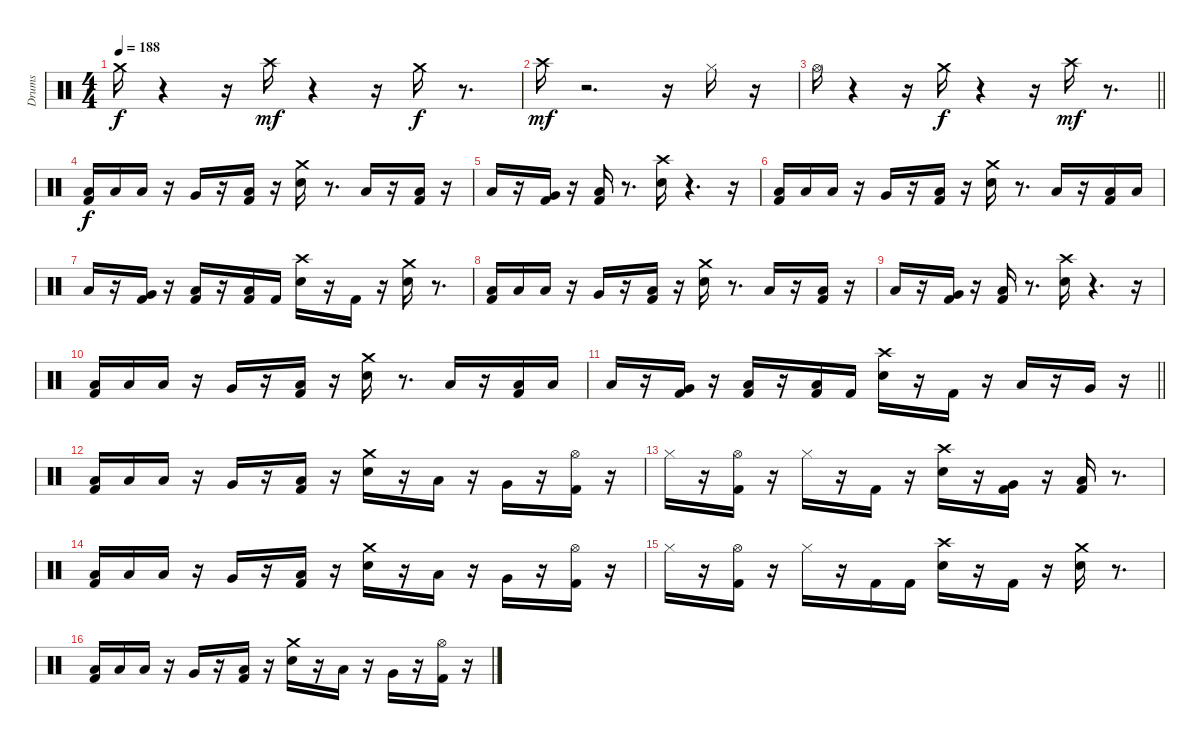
\track ("Drums" "Drums") {instrument percussion}
\staff {score}
\articulation defaults
\ts (4 4)
\tempo 188
\clef neutral
\ks c "Crash medium (hit)".16{dy f}
r.4 r.16 "Crash high (hit)".16{dy mf} r.4 r.16 "Crash medium (hit)".16{dy f} r.8{d} |
"Crash high (hit)".16{dy mf} r.2{d} r.16 "Hi-Hat (closed)".16 r.16 |
\barLineRight lightlight "Hi-Hat (open)".16
r.4 r.16 "Crash medium (hit)".16{dy f} r.4 r.16 "Crash high (hit)".16{dy mf} r.8{d} |
\section ("" " ")
("Kick (hit) 2" "Low Tom (hit)").16{dy f} "Low Tom (hit)".16 "Low Tom (hit)".16 r.16 "Very Low Tom (hit)".16 r.16 ("Kick (hit) 2" "Low Floor Tom (hit)").16 r.16 ("Snare (hit) 2" "Crash medium (hit)").16 r.8{d} "Low Tom (hit)".16 r.16 ("Kick (hit) 2" "Low Tom (hit)").16 r.16 |
"Low Tom (hit)".16 r.16 ("Kick (hit) 2" "Very Low Tom (hit)").16 r.16 ("Kick (hit) 2" "Low Floor Tom (hit)").16 r.8{d} ("Snare (hit) 2" "Crash high (hit)").16 r.4{d} r.16 |
("Kick (hit) 2" "Low Tom (hit)").16 "Low Tom (hit)".16 "Low Tom (hit)".16 r.16 "Very Low Tom (hit)".16 r.16 ("Kick (hit) 2" "Low Floor Tom (hit)").16 r.16 ("Snare (hit) 2" "Crash medium (hit)").16 r.8{d} "Low Tom (hit)".16 r.16 ("Kick (hit) 2" "Low Tom (hit)").16 "Low Tom (hit)".16 |
"Low Tom (hit)".16 r.16 ("Kick (hit) 2" "Very Low Tom (hit)").16 r.16 ("Kick (hit) 2" "Low Floor Tom (hit)").16 r.16 ("Kick (hit) 2" "Low Floor Tom (hit)").16 "Kick (hit) 2".16 ("Snare (hit) 2" "Crash high (hit)").16 r.16 "Kick (hit) 2".16 r.16 ("Snare (hit) 2" "Crash medium (hit)").16 r.8{d} |
("Kick (hit) 2" "Low Tom (hit)").16 "Low Tom (hit)".16 "Low Tom (hit)".16 r.16 "Very Low Tom (hit)".16 r.16 ("Kick (hit) 2" "Low Floor Tom (hit)").16 r.16 ("Snare (hit) 2" "Crash medium (hit)").16 r.8{d} "Low Tom (hit)".16 r.16 ("Kick (hit) 2" "Low Tom (hit)").16 r.16 |
"Low Tom (hit)".16 r.16 ("Kick (hit) 2" "Very Low Tom (hit)").16 r.16 ("Kick (hit) 2" "Low Floor Tom (hit)").16 r.8{d} ("Snare (hit) 2" "Crash high (hit)").16 r.4{d} r.16 |
("Kick (hit) 2" "Low Tom (hit)").16 "Low Tom (hit)".16 "Low Tom (hit)".16 r.16 "Very Low Tom (hit)".16 r.16 ("Kick (hit) 2" "Low Floor Tom (hit)").16 r.16 ("Snare (hit) 2" "Crash medium (hit)").16 r.8{d} "Low Tom (hit)".16 r.16 ("Kick (hit) 2" "Low Tom (hit)").16 "Low Tom (hit)".16 |
\barLineRight lightlight "Low Tom (hit)".16
r.16 ("Kick (hit) 2" "Very Low Tom (hit)").16 r.16 ("Kick (hit) 2" "Low Floor Tom (hit)").16 r.16 ("Kick (hit) 2" "Low Floor Tom (hit)").16 "Kick (hit) 2".16 ("Snare (hit) 2" "Crash high (hit)").16 r.16 "Kick (hit) 2".16 r.16 "Low Tom (hit)".16 r.16 "Very Low Tom (hit)".16 r.16 |
\section ("" " ")
("Kick (hit) 2" "Low Tom (hit)").16 "Low Tom (hit)".16 "Low Tom (hit)".16 r.16 "Very Low Tom (hit)".16 r.16 ("Kick (hit) 2" "Low Floor Tom (hit)").16 r.16 ("Snare (hit) 2" "Crash medium (hit)").16 r.16 "Low Tom (hit)".16 r.16 "Very Low Tom (hit)".16 r.16 ("Kick (hit) 2" "Hi-Hat (open)").16 r.16 |
"Hi-Hat (closed)".16 r.16 ("Kick (hit) 2" "Hi-Hat (open)").16 r.16 "Hi-Hat (closed)".16 r.16 "Kick (hit) 2".16 r.16 ("Snare (hit) 2" "Crash high (hit)").16 r.16 ("Kick (hit) 2" "Very Low Tom (hit)").16 r.16 ("Kick (hit) 2" "Low Floor Tom (hit)").16 r.8{d} |
("Kick (hit) 2" "Low Tom (hit)").16 "Low Tom (hit)".16 "Low Tom (hit)".16 r.16 "Very Low Tom (hit)".16 r.16 ("Kick (hit) 2" "Low Floor Tom (hit)").16 r.16 ("Snare (hit) 2" "Crash medium (hit)").16 r.16 "Low Tom (hit)".16 r.16 "Very Low Tom (hit)".16 r.16 ("Kick (hit) 2" "Hi-Hat (open)").16 r.16 |
"Hi-Hat (closed)".16 r.16 ("Kick (hit) 2" "Hi-Hat (open)").16 r.16 "Hi-Hat (closed)".16 r.16 "Kick (hit) 2".16 "Kick (hit) 2".16 ("Snare (hit) 2" "Crash high (hit)").16 r.16 "Kick (hit) 2".16 r.16 ("Snare (hit) 2" "Crash medium (hit)").16 r.8{d} |
("Kick (hit) 2" "Low Tom (hit)").16 "Low Tom (hit)".16 "Low Tom (hit)".16 r.16 "Very Low Tom (hit)".16 r.16 ("Kick (hit) 2" "Low Floor Tom (hit)").16 r.16 ("Snare (hit) 2" "Crash medium (hit)").16 r.16 "Low Tom (hit)".16 r.16 "Very Low Tom (hit)".16 r.16 ("Kick (hit) 2" "Hi-Hat (open)").16 r.16
